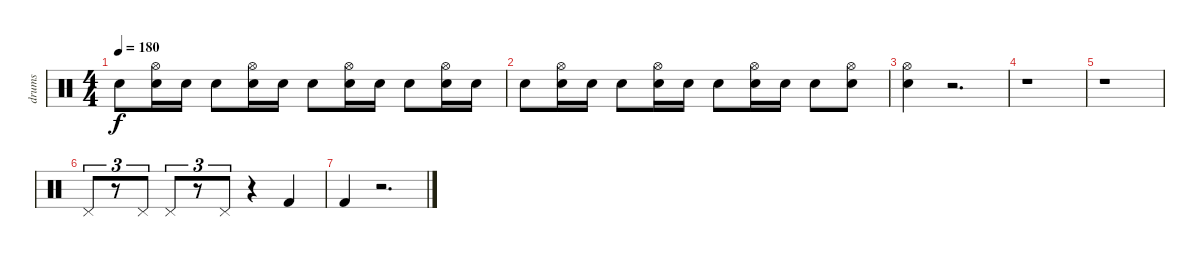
\track ("drums" "drums") {instrument percussion}
\staff {score}
\articulation defaults
\ts (4 4)
\tempo 180
\clef neutral
\ks c "Snare (hit) 2".8{dy f}
("Hi-Hat (open)" "Snare (hit) 2").16 "Snare (hit) 2".16 "Snare (hit) 2".8 ("Hi-Hat (open)" "Snare (hit) 2").16 "Snare (hit) 2".16 "Snare (hit) 2".8 ("Hi-Hat (open)" "Snare (hit) 2").16 "Snare (hit) 2".16 "Snare (hit) 2".8 ("Hi-Hat (open)" "Snare (hit) 2").16 "Snare (hit) 2".16 |
"Snare (hit) 2".8 ("Hi-Hat (open)" "Snare (hit) 2").16 "Snare (hit) 2".16 "Snare (hit) 2".8 ("Hi-Hat (open)" "Snare (hit) 2").16 "Snare (hit) 2".16 "Snare (hit) 2".8 ("Hi-Hat (open)" "Snare (hit) 2").16 "Snare (hit) 2".16 "Snare (hit) 2".8 ("Hi-Hat (open)" "Snare (hit) 2").8 |
("Hi-Hat (open)" "Snare (hit) 2").4 r.2{d} |
r.1 |
r.1 |
"Pedal Hi-Hat (hit)".8{tu (3 2)} r.8{tu (3 2)} "Pedal Hi-Hat (hit)".8{tu (3 2)} "Pedal Hi-Hat (hit)".8{tu (3 2)} r.8{tu (3 2)} "Pedal Hi-Hat (hit)".8{tu (3 2)} r.4 "Kick (hit) 2".4 |
"Kick (hit) 2".4 r.2{d}
